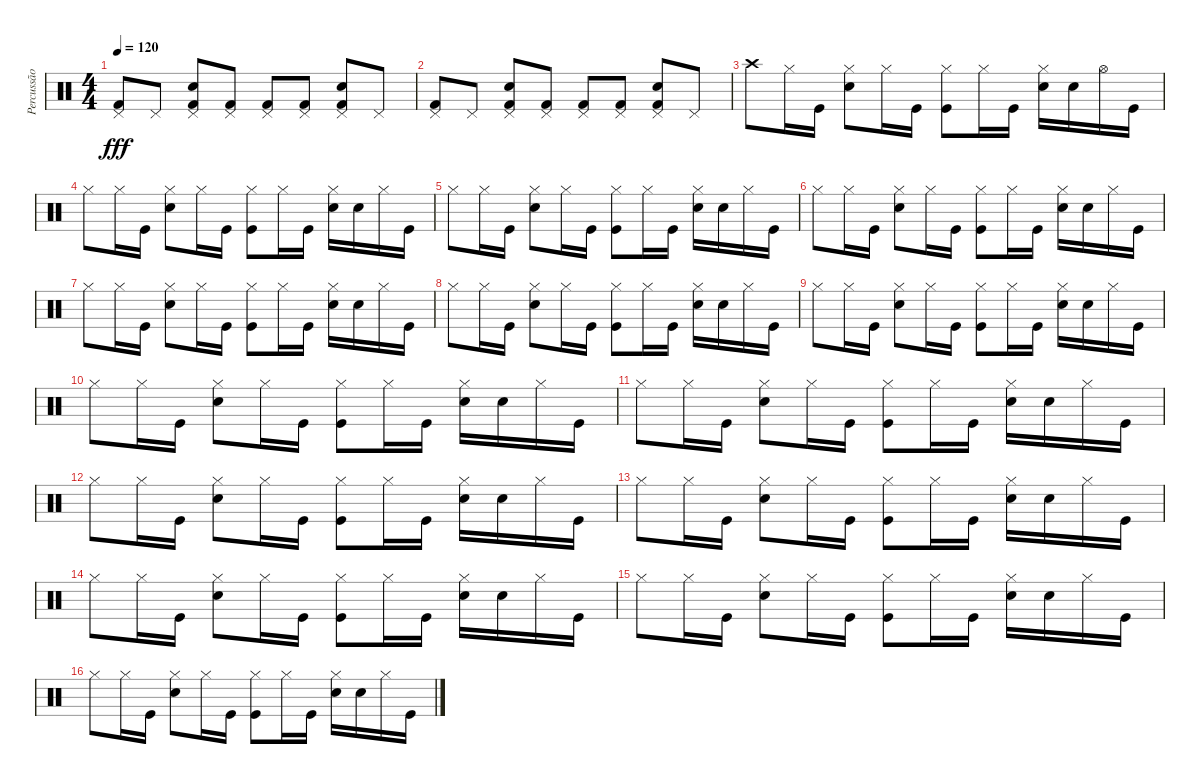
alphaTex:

\track ("Percussão" "Percussão") {instrument percussion}
\staff {score}
\articulation defaults
\ts (4 4)
\tempo 120
\clef neutral
\ks c
("Pedal Hi-Hat (hit)" "Kick (hit) 2").8{dy fff} "Pedal Hi-Hat (hit)".8 ("Pedal Hi-Hat (hit)" "Snare (hit) 2" "Kick (hit) 2").8 ("Pedal Hi-Hat (hit)" "Kick (hit) 2").8 ("Pedal Hi-Hat (hit)" "Kick (hit) 2").8 ("Pedal Hi-Hat (hit)" "Kick (hit) 2").8 ("Pedal Hi-Hat (hit)" "Snare (hit) 2" "Kick (hit) 2").8 "Pedal Hi-Hat (hit)".8 |
("Pedal Hi-Hat (hit)" "Kick (hit) 2").8 "Pedal Hi-Hat (hit)".8 ("Pedal Hi-Hat (hit)" "Snare (hit) 2" "Kick (hit) 2").8 ("Pedal Hi-Hat (hit)" "Kick (hit) 2").8 ("Pedal Hi-Hat (hit)" "Kick (hit) 2").8 ("Pedal Hi-Hat (hit)" "Kick (hit) 2").8 ("Pedal Hi-Hat (hit)" "Snare (hit) 2" "Kick (hit) 2").8 "Pedal Hi-Hat (hit)".8 |
"Crash high (hit)".8 "Hi-Hat (closed)".16 "Kick (hit)".16 ("Hi-Hat (closed)" "Snare (hit) 2").8 "Hi-Hat (closed)".16 "Kick (hit)".16 ("Hi-Hat (closed)" "Kick (hit)").8 "Hi-Hat (closed)".16 "Kick (hit)".16 ("Hi-Hat (closed)" "Snare (hit) 2").16 "Snare (hit) 2".16 "Hi-Hat (open)".16 "Kick (hit)".16 |
"Hi-Hat (closed)".8 "Hi-Hat (closed)".16 "Kick (hit)".16 ("Hi-Hat (closed)" "Snare (hit) 2").8 "Hi-Hat (closed)".16 "Kick (hit)".16 ("Hi-Hat (closed)" "Kick (hit)").8 "Hi-Hat (closed)".16 "Kick (hit)".16 ("Hi-Hat (closed)" "Snare (hit) 2").16 "Snare (hit) 2".16 "Hi-Hat (closed)".16 "Kick (hit)".16 |
"Hi-Hat (closed)".8 "Hi-Hat (closed)".16 "Kick (hit)".16 ("Hi-Hat (closed)" "Snare (hit) 2").8 "Hi-Hat (closed)".16 "Kick (hit)".16 ("Hi-Hat (closed)" "Kick (hit)").8 "Hi-Hat (closed)".16 "Kick (hit)".16 ("Hi-Hat (closed)" "Snare (hit) 2").16 "Snare (hit) 2".16 "Hi-Hat (closed)".16 "Kick (hit)".16 |
"Hi-Hat (closed)".8 "Hi-Hat (closed)".16 "Kick (hit)".16 ("Hi-Hat (closed)" "Snare (hit) 2").8 "Hi-Hat (closed)".16 "Kick (hit)".16 ("Hi-Hat (closed)" "Kick (hit)").8 "Hi-Hat (closed)".16 "Kick (hit)".16 ("Hi-Hat (closed)" "Snare (hit) 2").16 "Snare (hit) 2".16 "Hi-Hat (closed)".16 "Kick (hit)".16 |
"Hi-Hat (closed)".8 "Hi-Hat (closed)".16 "Kick (hit)".16 ("Hi-Hat (closed)" "Snare (hit) 2").8 "Hi-Hat (closed)".16 "Kick (hit)".16 ("Hi-Hat (closed)" "Kick (hit)").8 "Hi-Hat (closed)".16 "Kick (hit)".16 ("Hi-Hat (closed)" "Snare (hit) 2").16 "Snare (hit) 2".16 "Hi-Hat (closed)".16 "Kick (hit)".16 |
"Hi-Hat (closed)".8 "Hi-Hat (closed)".16 "Kick (hit)".16 ("Hi-Hat (closed)" "Snare (hit) 2").8 "Hi-Hat (closed)".16 "Kick (hit)".16 ("Hi-Hat (closed)" "Kick (hit)").8 "Hi-Hat (closed)".16 "Kick (hit)".16 ("Hi-Hat (closed)" "Snare (hit) 2").16 "Snare (hit) 2".16 "Hi-Hat (closed)".16 "Kick (hit)".16 |
"Hi-Hat (closed)".8 "Hi-Hat (closed)".16 "Kick (hit)".16 ("Hi-Hat (closed)" "Snare (hit) 2").8 "Hi-Hat (closed)".16 "Kick (hit)".16 ("Hi-Hat (closed)" "Kick (hit)").8 "Hi-Hat (closed)".16 "Kick (hit)".16 ("Hi-Hat (closed)" "Snare (hit) 2").16 "Snare (hit) 2".16 "Hi-Hat (closed)".16 "Kick (hit)".16 |
"Hi-Hat (closed)".8 "Hi-Hat (closed)".16 "Kick (hit)".16 ("Hi-Hat (closed)" "Snare (hit) 2").8 "Hi-Hat (closed)".16 "Kick (hit)".16 ("Hi-Hat (closed)" "Kick (hit)").8 "Hi-Hat (closed)".16 "Kick (hit)".16 ("Hi-Hat (closed)" "Snare (hit) 2").16 "Snare (hit) 2".16 "Hi-Hat (closed)".16 "Kick (hit)".16 |
"Hi-Hat (closed)".8 "Hi-Hat (closed)".16 "Kick (hit)".16 ("Hi-Hat (closed)" "Snare (hit) 2").8 "Hi-Hat (closed)".16 "Kick (hit)".16 ("Hi-Hat (closed)" "Kick (hit)").8 "Hi-Hat (closed)".16 "Kick (hit)".16 ("Hi-Hat (closed)" "Snare (hit) 2").16 "Snare (hit) 2".16 "Hi-Hat (closed)".16 "Kick (hit)".16 |
"Hi-Hat (closed)".8 "Hi-Hat (closed)".16 "Kick (hit)".16 ("Hi-Hat (closed)" "Snare (hit) 2").8 "Hi-Hat (closed)".16 "Kick (hit)".16 ("Hi-Hat (closed)" "Kick (hit)").8 "Hi-Hat (closed)".16 "Kick (hit)".16 ("Hi-Hat (closed)" "Snare (hit) 2").16 "Snare (hit) 2".16 "Hi-Hat (closed)".16 "Kick (hit)".16 |
"Hi-Hat (closed)".8 "Hi-Hat (closed)".16 "Kick (hit)".16 ("Hi-Hat (closed)" "Snare (hit) 2").8 "Hi-Hat (closed)".16 "Kick (hit)".16 ("Hi-Hat (closed)" "Kick (hit)").8 "Hi-Hat (closed)".16 "Kick (hit)".16 ("Hi-Hat (closed)" "Snare (hit) 2").16 "Snare (hit) 2".16 "Hi-Hat (closed)".16 "Kick (hit)".16 |
"Hi-Hat (closed)".8 "Hi-Hat (closed)".16 "Kick (hit)".16 ("Hi-Hat (closed)" "Snare (hit) 2").8 "Hi-Hat (closed)".16 "Kick (hit)".16 ("Hi-Hat (closed)" "Kick (hit)").8 "Hi-Hat (closed)".16 "Kick (hit)".16 ("Hi-Hat (closed)" "Snare (hit) 2").16 "Snare (hit) 2".16 "Hi-Hat (closed)".16 "Kick (hit)".16 |
"Hi-Hat (closed)".8 "Hi-Hat (closed)".16 "Kick (hit)".16 ("Hi-Hat (closed)" "Snare (hit) 2").8 "Hi-Hat (closed)".16 "Kick (hit)".16 ("Hi-Hat (closed)" "Kick (hit)").8 "Hi-Hat (closed)".16 "Kick (hit)".16 ("Hi-Hat (closed)" "Snare (hit) 2").16 "Snare (hit) 2".16 "Hi-Hat (closed)".16 "Kick (hit)".16 |
"Hi-Hat (closed)".8 "Hi-Hat (closed)".16 "Kick (hit)".16 ("Hi-Hat (closed)" "Snare (hit) 2").8 "Hi-Hat (closed)".16 "Kick (hit)".16 ("Hi-Hat (closed)" "Kick (hit)").8 "Hi-Hat (closed)".16 "Kick (hit)".16 ("Hi-Hat (closed)" "Snare (hit) 2").16 "Snare (hit) 2".16 "Hi-Hat (closed)".16 "Kick (hit)".16
